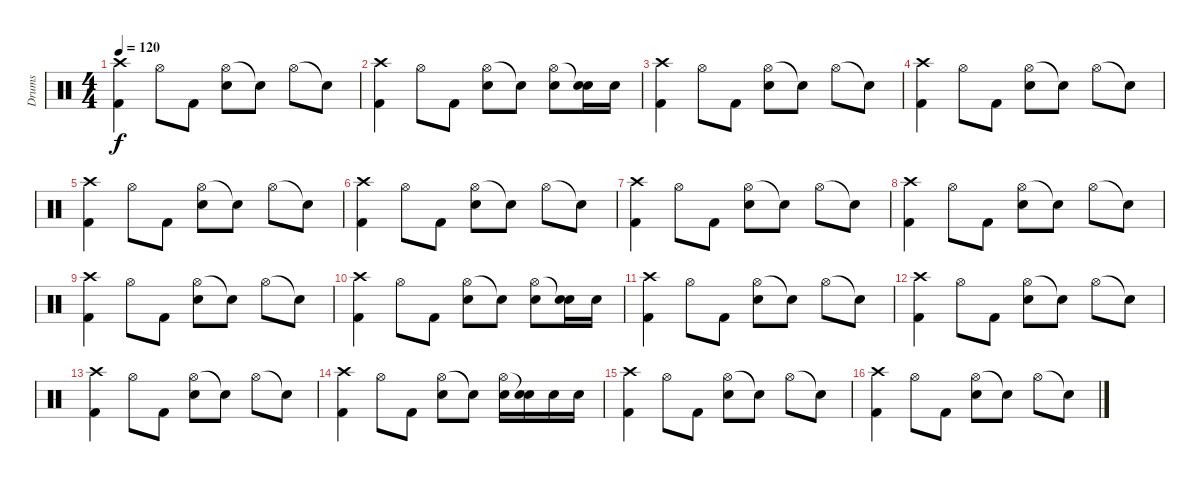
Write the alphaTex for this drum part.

\track ("Drums" "Drums") {instrument percussion}
\staff {score}
\articulation defaults
\ts (4 4)
\tempo 120
\clef neutral
\ks c
("Crash high (hit)" "Kick (hit) 2").4{dy f} "Hi-Hat (open)".8 "Kick (hit) 2".8 ("Hi-Hat (open)" "Electric Snare (hit)").8 "Snare (hit)"{t}.8 "Hi-Hat (open)".8 "Snare (hit)"{t}.8 |
("Crash high (hit)" "Kick (hit) 2").4 "Hi-Hat (open)".8 "Kick (hit) 2".8 ("Hi-Hat (open)" "Electric Snare (hit)").8 "Snare (hit)"{t}.8 ("Hi-Hat (open)" "Electric Snare (hit)").8 ("Snare (hit)"{t} "Electric Snare (hit)").16 "Electric Snare (hit)".16 |
("Crash high (hit)" "Kick (hit) 2").4 "Hi-Hat (open)".8 "Kick (hit) 2".8 ("Hi-Hat (open)" "Electric Snare (hit)").8 "Snare (hit)"{t}.8 "Hi-Hat (open)".8 "Snare (hit)"{t}.8 |
("Crash high (hit)" "Kick (hit) 2").4 "Hi-Hat (open)".8 "Kick (hit) 2".8 ("Hi-Hat (open)" "Electric Snare (hit)").8 "Snare (hit)"{t}.8 "Hi-Hat (open)".8 "Snare (hit)"{t}.8 |
("Crash high (hit)" "Kick (hit) 2").4 "Hi-Hat (open)".8 "Kick (hit) 2".8 ("Hi-Hat (open)" "Electric Snare (hit)").8 "Snare (hit)"{t}.8 "Hi-Hat (open)".8 "Snare (hit)"{t}.8 |
("Crash high (hit)" "Kick (hit) 2").4 "Hi-Hat (open)".8 "Kick (hit) 2".8 ("Hi-Hat (open)" "Electric Snare (hit)").8 "Snare (hit)"{t}.8 "Hi-Hat (open)".8 "Snare (hit)"{t}.8 |
("Crash high (hit)" "Kick (hit) 2").4 "Hi-Hat (open)".8 "Kick (hit) 2".8 ("Hi-Hat (open)" "Electric Snare (hit)").8 "Snare (hit)"{t}.8 "Hi-Hat (open)".8 "Snare (hit)"{t}.8 |
("Crash high (hit)" "Kick (hit) 2").4 "Hi-Hat (open)".8 "Kick (hit) 2".8 ("Hi-Hat (open)" "Electric Snare (hit)").8 "Snare (hit)"{t}.8 "Hi-Hat (open)".8 "Snare (hit)"{t}.8 |
("Crash high (hit)" "Kick (hit) 2").4 "Hi-Hat (open)".8 "Kick (hit) 2".8 ("Hi-Hat (open)" "Electric Snare (hit)").8 "Snare (hit)"{t}.8 "Hi-Hat (open)".8 "Snare (hit)"{t}.8 |
("Crash high (hit)" "Kick (hit) 2").4 "Hi-Hat (open)".8 "Kick (hit) 2".8 ("Hi-Hat (open)" "Electric Snare (hit)").8 "Snare (hit)"{t}.8 ("Hi-Hat (open)" "Electric Snare (hit)").8 ("Snare (hit)"{t} "Electric Snare (hit)").16 "Electric Snare (hit)".16 |
("Crash high (hit)" "Kick (hit) 2").4 "Hi-Hat (open)".8 "Kick (hit) 2".8 ("Hi-Hat (open)" "Electric Snare (hit)").8 "Snare (hit)"{t}.8 "Hi-Hat (open)".8 "Snare (hit)"{t}.8 |
("Crash high (hit)" "Kick (hit) 2").4 "Hi-Hat (open)".8 "Kick (hit) 2".8 ("Hi-Hat (open)" "Electric Snare (hit)").8 "Snare (hit)"{t}.8 "Hi-Hat (open)".8 "Snare (hit)"{t}.8 |
("Crash high (hit)" "Kick (hit) 2").4 "Hi-Hat (open)".8 "Kick (hit) 2".8 ("Hi-Hat (open)" "Electric Snare (hit)").8 "Snare (hit)"{t}.8 "Hi-Hat (open)".8 "Snare (hit)"{t}.8 |
("Crash high (hit)" "Kick (hit) 2").4 "Hi-Hat (open)".8 "Kick (hit) 2".8 ("Hi-Hat (open)" "Electric Snare (hit)").8 "Snare (hit)"{t}.8 ("Hi-Hat (open)" "Electric Snare (hit)").16 ("Snare (hit)"{t} "Electric Snare (hit)").16 "Electric Snare (hit)".16 "Electric Snare (hit)".16 |
("Crash high (hit)" "Kick (hit) 2").4 "Hi-Hat (open)".8 "Kick (hit) 2".8 ("Hi-Hat (open)" "Electric Snare (hit)").8 "Snare (hit)"{t}.8 "Hi-Hat (open)".8 "Snare (hit)"{t}.8 |
("Crash high (hit)" "Kick (hit) 2").4 "Hi-Hat (open)".8 "Kick (hit) 2".8 ("Hi-Hat (open)" "Electric Snare (hit)").8 "Snare (hit)"{t}.8 "Hi-Hat (open)".8 "Snare (hit)"{t}.8
